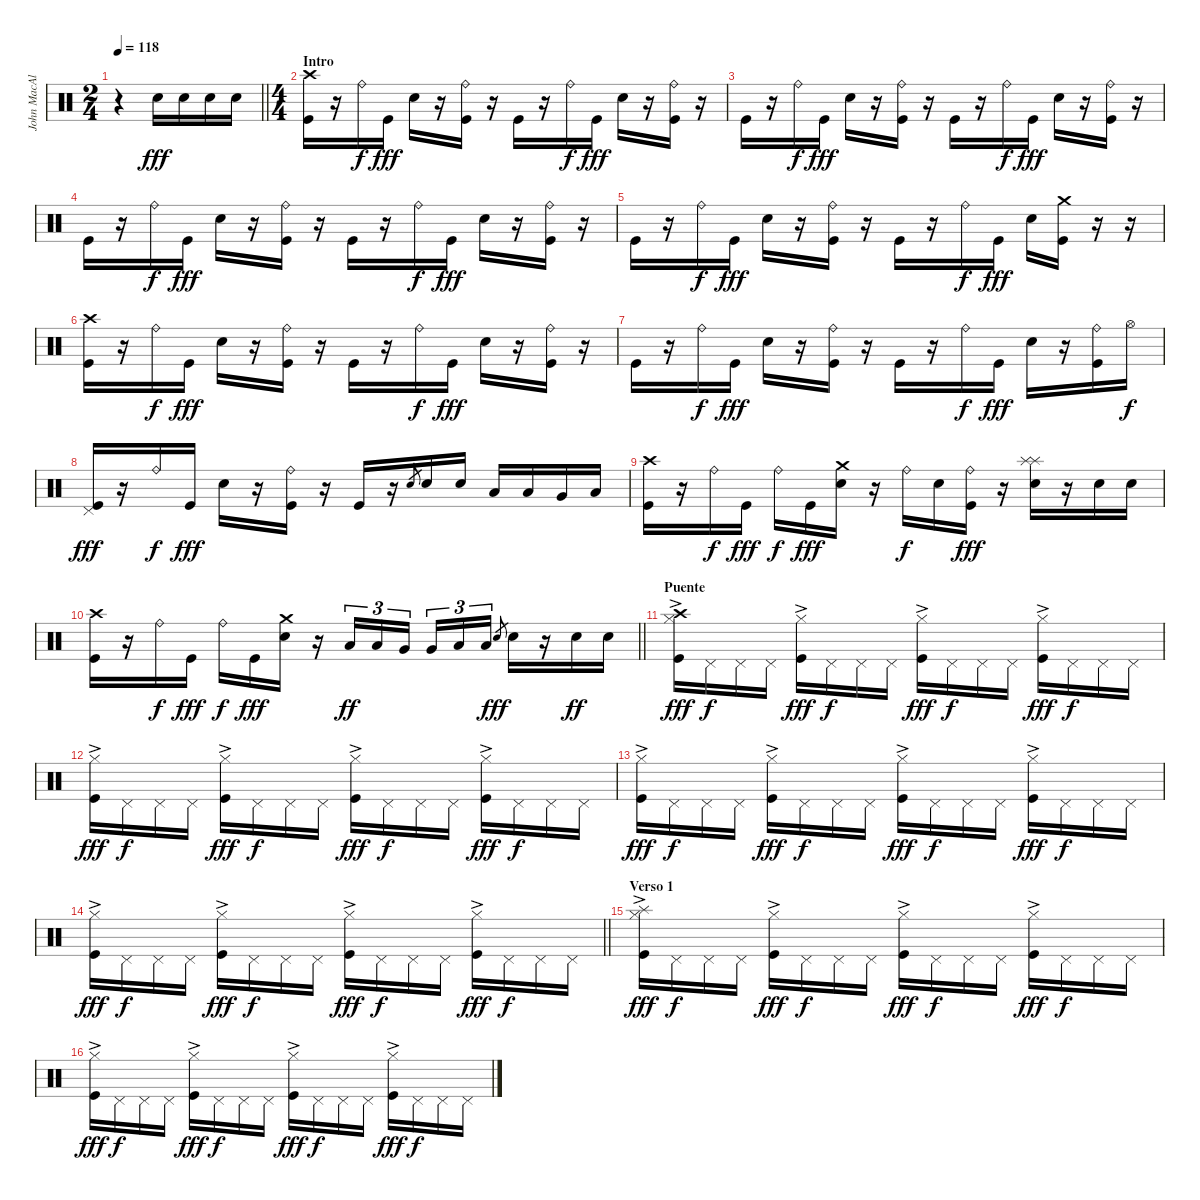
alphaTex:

\track ("John MacAluso" "John MacAl") {instrument percussion}
\staff {score}
\articulation defaults
\ts (2 4)
\tempo 118
\clef neutral
\barLineRight lightlight
\ks c
r.4{dy fff} "Electric Snare (hit)".16 "Electric Snare (hit)".16 "Electric Snare (hit)".16 "Electric Snare (hit)".16 |
\ts (4 4)
\section ("" "Intro")
("Crash high (hit)" "Kick (hit)").16 r.16 "Ride (bell)".16{dy f} "Kick (hit)".16{dy fff} "Electric Snare (hit)".16 r.16 ("Ride (bell)" "Kick (hit)").16 r.16 "Kick (hit)".16 r.16 "Ride (bell)".16{dy f} "Kick (hit)".16{dy fff} "Electric Snare (hit)".16 r.16 ("Ride (bell)" "Kick (hit)").16 r.16 |
"Kick (hit)".16 r.16 "Ride (bell)".16{dy f} "Kick (hit)".16{dy fff} "Electric Snare (hit)".16 r.16 ("Ride (bell)" "Kick (hit)").16 r.16 "Kick (hit)".16 r.16 "Ride (bell)".16{dy f} "Kick (hit)".16{dy fff} "Electric Snare (hit)".16 r.16 ("Ride (bell)" "Kick (hit)").16 r.16 |
"Kick (hit)".16 r.16 "Ride (bell)".16{dy f} "Kick (hit)".16{dy fff} "Electric Snare (hit)".16 r.16 ("Ride (bell)" "Kick (hit)").16 r.16 "Kick (hit)".16 r.16 "Ride (bell)".16{dy f} "Kick (hit)".16{dy fff} "Electric Snare (hit)".16 r.16 ("Ride (bell)" "Kick (hit)").16 r.16 |
"Kick (hit)".16 r.16 "Ride (bell)".16{dy f} "Kick (hit)".16{dy fff} "Electric Snare (hit)".16 r.16 ("Ride (bell)" "Kick (hit)").16 r.16 "Kick (hit)".16 r.16 "Ride (bell)".16{dy f} "Kick (hit)".16{dy fff} "Electric Snare (hit)".16 ("Crash medium (hit)" "Kick (hit)").16 r.16 r.16 |
("Crash high (hit)" "Kick (hit)").16 r.16 "Ride (bell)".16{dy f} "Kick (hit)".16{dy fff} "Electric Snare (hit)".16 r.16 ("Ride (bell)" "Kick (hit)").16 r.16 "Kick (hit)".16 r.16 "Ride (bell)".16{dy f} "Kick (hit)".16{dy fff} "Electric Snare (hit)".16 r.16 ("Ride (bell)" "Kick (hit)").16 r.16 |
"Kick (hit)".16 r.16 "Ride (bell)".16{dy f} "Kick (hit)".16{dy fff} "Electric Snare (hit)".16 r.16 ("Ride (bell)" "Kick (hit)").16 r.16 "Kick (hit)".16 r.16 "Ride (bell)".16{dy f} "Kick (hit)".16{dy fff} "Electric Snare (hit)".16 r.16 ("Ride (bell)" "Kick (hit)").16 "Hi-Hat (open)".16{dy f} |
("Pedal Hi-Hat (hit)" "Kick (hit)").16{dy fff} r.16 "Ride (bell)".16{dy f} "Kick (hit)".16{dy fff} "Electric Snare (hit)".16 r.16 ("Ride (bell)" "Kick (hit)").16 r.16 "Kick (hit)".16 r.16 "Electric Snare (hit)".8{gr} "Electric Snare (hit)".16 "Electric Snare (hit)".16 "Low Tom (hit)".16 "Low Tom (hit)".16 "Very Low Tom (hit)".16 "Low Floor Tom (hit)".16 |
("Crash high (hit)" "Kick (hit)").16 r.16 "Ride (bell)".16{dy f} "Kick (hit)".16{dy fff} "Ride (bell)".16{dy f} "Kick (hit)".16{dy fff} ("Crash medium (hit)" "Electric Snare (hit)").16 r.16 "Ride (bell)".16{dy f} "Electric Snare (hit)".16 ("Ride (bell)" "Kick (hit)").16{dy fff} r.16 ("Splash (hit)" "Splash (hit)" "Electric Snare (hit)").16 r.16 "Electric Snare (hit)".16 "Electric Snare (hit)".16 |
\barLineRight lightlight
("Crash high (hit)" "Kick (hit)").16 r.16 "Ride (bell)".16{dy f} "Kick (hit)".16{dy fff} "Ride (bell)".16{dy f} "Kick (hit)".16{dy fff} ("Crash medium (hit)" "Electric Snare (hit)").16 r.16 "Low Tom (hit)".16{tu (3 2) dy ff} "Low Tom (hit)".16{tu (3 2)} "Very Low Tom (hit)".16{tu (3 2) beam splitsecondary} "Very Low Tom (hit)".16{tu (3 2)} "Low Floor Tom (hit)".16{tu (3 2)} "Low Floor Tom (hit)".16{tu (3 2)} "Electric Snare (hit)".8{gr dy fff} "Electric Snare (hit)".16 r.16 "Electric Snare (hit)".16{dy ff} "Electric Snare (hit)".16 |
\section ("" "Puente")
("Crash high (hit)" "Hi-Hat (closed)"{ac} "Kick (hit)").16{dy fff} "Pedal Hi-Hat (hit)".16{dy f} "Pedal Hi-Hat (hit)".16 "Pedal Hi-Hat (hit)".16 ("Hi-Hat (closed)"{ac} "Kick (hit)").16{dy fff} "Pedal Hi-Hat (hit)".16{dy f} "Pedal Hi-Hat (hit)".16 "Pedal Hi-Hat (hit)".16 ("Hi-Hat (closed)"{ac} "Kick (hit)").16{dy fff} "Pedal Hi-Hat (hit)".16{dy f} "Pedal Hi-Hat (hit)".16 "Pedal Hi-Hat (hit)".16 ("Hi-Hat (closed)"{ac} "Kick (hit)").16{dy fff} "Pedal Hi-Hat (hit)".16{dy f} "Pedal Hi-Hat (hit)".16 "Pedal Hi-Hat (hit)".16 |
("Hi-Hat (closed)"{ac} "Kick (hit)").16{dy fff} "Pedal Hi-Hat (hit)".16{dy f} "Pedal Hi-Hat (hit)".16 "Pedal Hi-Hat (hit)".16 ("Hi-Hat (closed)"{ac} "Kick (hit)").16{dy fff} "Pedal Hi-Hat (hit)".16{dy f} "Pedal Hi-Hat (hit)".16 "Pedal Hi-Hat (hit)".16 ("Hi-Hat (closed)"{ac} "Kick (hit)").16{dy fff} "Pedal Hi-Hat (hit)".16{dy f} "Pedal Hi-Hat (hit)".16 "Pedal Hi-Hat (hit)".16 ("Hi-Hat (closed)"{ac} "Kick (hit)").16{dy fff} "Pedal Hi-Hat (hit)".16{dy f} "Pedal Hi-Hat (hit)".16 "Pedal Hi-Hat (hit)".16 |
("Hi-Hat (closed)"{ac} "Kick (hit)").16{dy fff} "Pedal Hi-Hat (hit)".16{dy f} "Pedal Hi-Hat (hit)".16 "Pedal Hi-Hat (hit)".16 ("Hi-Hat (closed)"{ac} "Kick (hit)").16{dy fff} "Pedal Hi-Hat (hit)".16{dy f} "Pedal Hi-Hat (hit)".16 "Pedal Hi-Hat (hit)".16 ("Hi-Hat (closed)"{ac} "Kick (hit)").16{dy fff} "Pedal Hi-Hat (hit)".16{dy f} "Pedal Hi-Hat (hit)".16 "Pedal Hi-Hat (hit)".16 ("Hi-Hat (closed)"{ac} "Kick (hit)").16{dy fff} "Pedal Hi-Hat (hit)".16{dy f} "Pedal Hi-Hat (hit)".16 "Pedal Hi-Hat (hit)".16 |
\barLineRight lightlight
("Hi-Hat (closed)"{ac} "Kick (hit)").16{dy fff} "Pedal Hi-Hat (hit)".16{dy f} "Pedal Hi-Hat (hit)".16 "Pedal Hi-Hat (hit)".16 ("Hi-Hat (closed)"{ac} "Kick (hit)").16{dy fff} "Pedal Hi-Hat (hit)".16{dy f} "Pedal Hi-Hat (hit)".16 "Pedal Hi-Hat (hit)".16 ("Hi-Hat (closed)"{ac} "Kick (hit)").16{dy fff} "Pedal Hi-Hat (hit)".16{dy f} "Pedal Hi-Hat (hit)".16 "Pedal Hi-Hat (hit)".16 ("Hi-Hat (closed)"{ac} "Kick (hit)").16{dy fff} "Pedal Hi-Hat (hit)".16{dy f} "Pedal Hi-Hat (hit)".16 "Pedal Hi-Hat (hit)".16 |
\section ("" "Verso 1")
("Splash (hit)" "Hi-Hat (closed)"{ac} "Kick (hit)").16{dy fff} "Pedal Hi-Hat (hit)".16{dy f} "Pedal Hi-Hat (hit)".16 "Pedal Hi-Hat (hit)".16 ("Hi-Hat (closed)"{ac} "Kick (hit)").16{dy fff} "Pedal Hi-Hat (hit)".16{dy f} "Pedal Hi-Hat (hit)".16 "Pedal Hi-Hat (hit)".16 ("Hi-Hat (closed)"{ac} "Kick (hit)").16{dy fff} "Pedal Hi-Hat (hit)".16{dy f} "Pedal Hi-Hat (hit)".16 "Pedal Hi-Hat (hit)".16 ("Hi-Hat (closed)"{ac} "Kick (hit)").16{dy fff} "Pedal Hi-Hat (hit)".16{dy f} "Pedal Hi-Hat (hit)".16 "Pedal Hi-Hat (hit)".16 |
("Hi-Hat (closed)"{ac} "Kick (hit)").16{dy fff} "Pedal Hi-Hat (hit)".16{dy f} "Pedal Hi-Hat (hit)".16 "Pedal Hi-Hat (hit)".16 ("Hi-Hat (closed)"{ac} "Kick (hit)").16{dy fff} "Pedal Hi-Hat (hit)".16{dy f} "Pedal Hi-Hat (hit)".16 "Pedal Hi-Hat (hit)".16 ("Hi-Hat (closed)"{ac} "Kick (hit)").16{dy fff} "Pedal Hi-Hat (hit)".16{dy f} "Pedal Hi-Hat (hit)".16 "Pedal Hi-Hat (hit)".16 ("Hi-Hat (closed)"{ac} "Kick (hit)").16{dy fff} "Pedal Hi-Hat (hit)".16{dy f} "Pedal Hi-Hat (hit)".16 "Pedal Hi-Hat (hit)".16
